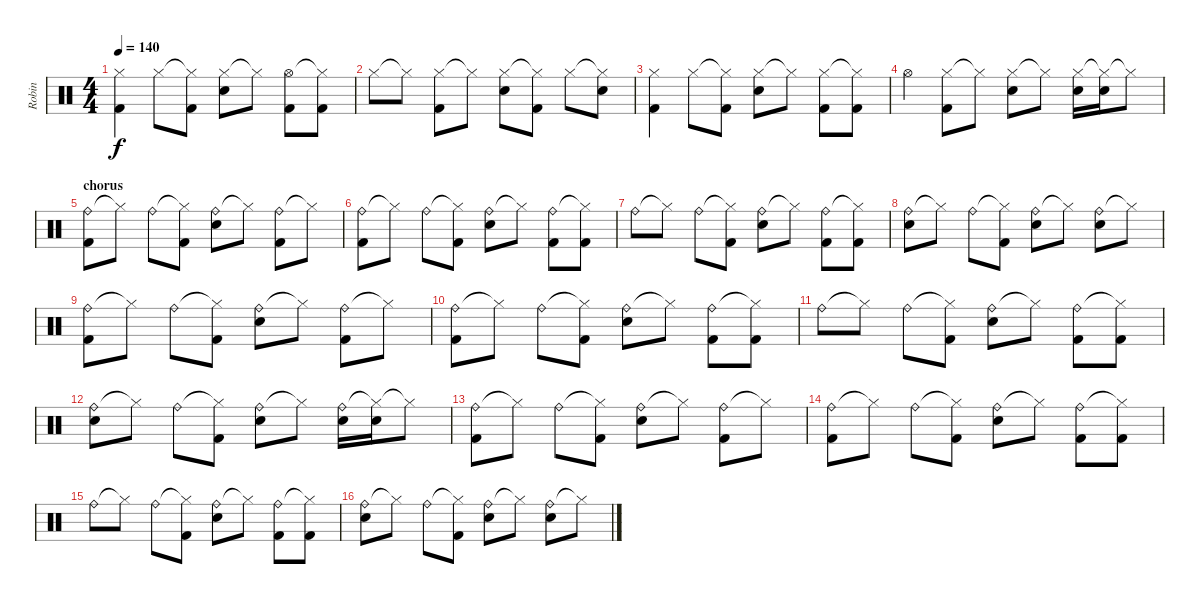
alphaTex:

\track ("Robin" "Robin") {instrument percussion}
\staff {score}
\articulation defaults
\ts (4 4)
\tempo 140
\clef neutral
\ks c
("Hi-Hat (closed)" "Kick (hit) 2").4{dy f} "Hi-Hat (closed)".8 ("Hi-Hat (closed)"{t} "Kick (hit) 2").8 ("Hi-Hat (closed)" "Snare (hit) 2").8 "Hi-Hat (closed)"{t}.8 ("Hi-Hat (open)" "Kick (hit) 2").8 ("Hi-Hat (closed)"{t} "Kick (hit) 2").8 |
"Hi-Hat (closed)".8 "Hi-Hat (closed)"{t}.8 ("Hi-Hat (closed)" "Kick (hit) 2").8 "Hi-Hat (closed)"{t}.8 ("Hi-Hat (closed)" "Snare (hit) 2").8 ("Hi-Hat (closed)"{t} "Kick (hit) 2").8 "Hi-Hat (closed)".8 ("Hi-Hat (closed)"{t} "Snare (hit) 2").8 |
("Hi-Hat (closed)" "Kick (hit) 2").4 "Hi-Hat (closed)".8 ("Hi-Hat (closed)"{t} "Kick (hit) 2").8 ("Hi-Hat (closed)" "Snare (hit) 2").8 "Hi-Hat (closed)"{t}.8 ("Hi-Hat (closed)" "Kick (hit) 2").8 ("Hi-Hat (closed)"{t} "Kick (hit) 2").8 |
"Hi-Hat (open)".4 ("Hi-Hat (closed)" "Kick (hit) 2").8 "Hi-Hat (closed)"{t}.8 ("Hi-Hat (closed)" "Snare (hit) 2").8 "Hi-Hat (closed)"{t}.8 ("Hi-Hat (closed)" "Snare (hit) 2").16 ("Hi-Hat (closed)"{t} "Snare (hit) 2").16 "Hi-Hat (closed)"{t}.8 |
\section ("" "chorus")
("Ride (bell)" "Kick (hit) 2").8 "Hi-Hat (closed)"{t}.8 "Ride (bell)".8 ("Hi-Hat (closed)"{t} "Kick (hit) 2").8 ("Ride (bell)" "Snare (hit) 2").8 "Hi-Hat (closed)"{t}.8 ("Ride (bell)" "Kick (hit) 2").8 "Hi-Hat (closed)"{t}.8 |
("Ride (bell)" "Kick (hit) 2").8 "Hi-Hat (closed)"{t}.8 "Ride (bell)".8 ("Hi-Hat (closed)"{t} "Kick (hit) 2").8 ("Ride (bell)" "Snare (hit) 2").8 "Hi-Hat (closed)"{t}.8 ("Ride (bell)" "Kick (hit) 2").8 ("Hi-Hat (closed)"{t} "Kick (hit) 2").8 |
"Ride (bell)".8 "Hi-Hat (closed)"{t}.8 "Ride (bell)".8 ("Hi-Hat (closed)"{t} "Kick (hit) 2").8 ("Ride (bell)" "Snare (hit) 2").8 "Hi-Hat (closed)"{t}.8 ("Ride (bell)" "Kick (hit) 2").8 ("Hi-Hat (closed)"{t} "Kick (hit) 2").8 |
("Ride (bell)" "Snare (hit) 2").8 "Hi-Hat (closed)"{t}.8 "Ride (bell)".8 ("Hi-Hat (closed)"{t} "Kick (hit) 2").8 ("Ride (bell)" "Snare (hit) 2").8 "Hi-Hat (closed)"{t}.8 ("Ride (bell)" "Snare (hit) 2").8 "Hi-Hat (closed)"{t}.8 |
("Ride (bell)" "Kick (hit) 2").8 "Hi-Hat (closed)"{t}.8 "Ride (bell)".8 ("Hi-Hat (closed)"{t} "Kick (hit) 2").8 ("Ride (bell)" "Snare (hit) 2").8 "Hi-Hat (closed)"{t}.8 ("Ride (bell)" "Kick (hit) 2").8 "Hi-Hat (closed)"{t}.8 |
("Ride (bell)" "Kick (hit) 2").8 "Hi-Hat (closed)"{t}.8 "Ride (bell)".8 ("Hi-Hat (closed)"{t} "Kick (hit) 2").8 ("Ride (bell)" "Snare (hit) 2").8 "Hi-Hat (closed)"{t}.8 ("Ride (bell)" "Kick (hit) 2").8 ("Hi-Hat (closed)"{t} "Kick (hit) 2").8 |
"Ride (bell)".8 "Hi-Hat (closed)"{t}.8 "Ride (bell)".8 ("Hi-Hat (closed)"{t} "Kick (hit) 2").8 ("Ride (bell)" "Snare (hit) 2").8 "Hi-Hat (closed)"{t}.8 ("Ride (bell)" "Kick (hit) 2").8 ("Hi-Hat (closed)"{t} "Kick (hit) 2").8 |
("Ride (bell)" "Snare (hit) 2").8 "Hi-Hat (closed)"{t}.8 "Ride (bell)".8 ("Hi-Hat (closed)"{t} "Kick (hit) 2").8 ("Ride (bell)" "Snare (hit) 2").8 "Hi-Hat (closed)"{t}.8 ("Ride (bell)" "Snare (hit) 2").16 ("Hi-Hat (closed)"{t} "Snare (hit) 2").16 "Hi-Hat (closed)"{t}.8 |
("Ride (bell)" "Kick (hit) 2").8 "Hi-Hat (closed)"{t}.8 "Ride (bell)".8 ("Hi-Hat (closed)"{t} "Kick (hit) 2").8 ("Ride (bell)" "Snare (hit) 2").8 "Hi-Hat (closed)"{t}.8 ("Ride (bell)" "Kick (hit) 2").8 "Hi-Hat (closed)"{t}.8 |
("Ride (bell)" "Kick (hit) 2").8 "Hi-Hat (closed)"{t}.8 "Ride (bell)".8 ("Hi-Hat (closed)"{t} "Kick (hit) 2").8 ("Ride (bell)" "Snare (hit) 2").8 "Hi-Hat (closed)"{t}.8 ("Ride (bell)" "Kick (hit) 2").8 ("Hi-Hat (closed)"{t} "Kick (hit) 2").8 |
"Ride (bell)".8 "Hi-Hat (closed)"{t}.8 "Ride (bell)".8 ("Hi-Hat (closed)"{t} "Kick (hit) 2").8 ("Ride (bell)" "Snare (hit) 2").8 "Hi-Hat (closed)"{t}.8 ("Ride (bell)" "Kick (hit) 2").8 ("Hi-Hat (closed)"{t} "Kick (hit) 2").8 |
("Ride (bell)" "Snare (hit) 2").8 "Hi-Hat (closed)"{t}.8 "Ride (bell)".8 ("Hi-Hat (closed)"{t} "Kick (hit) 2").8 ("Ride (bell)" "Snare (hit) 2").8 "Hi-Hat (closed)"{t}.8 ("Ride (bell)" "Snare (hit) 2").8 "Hi-Hat (closed)"{t}.8
